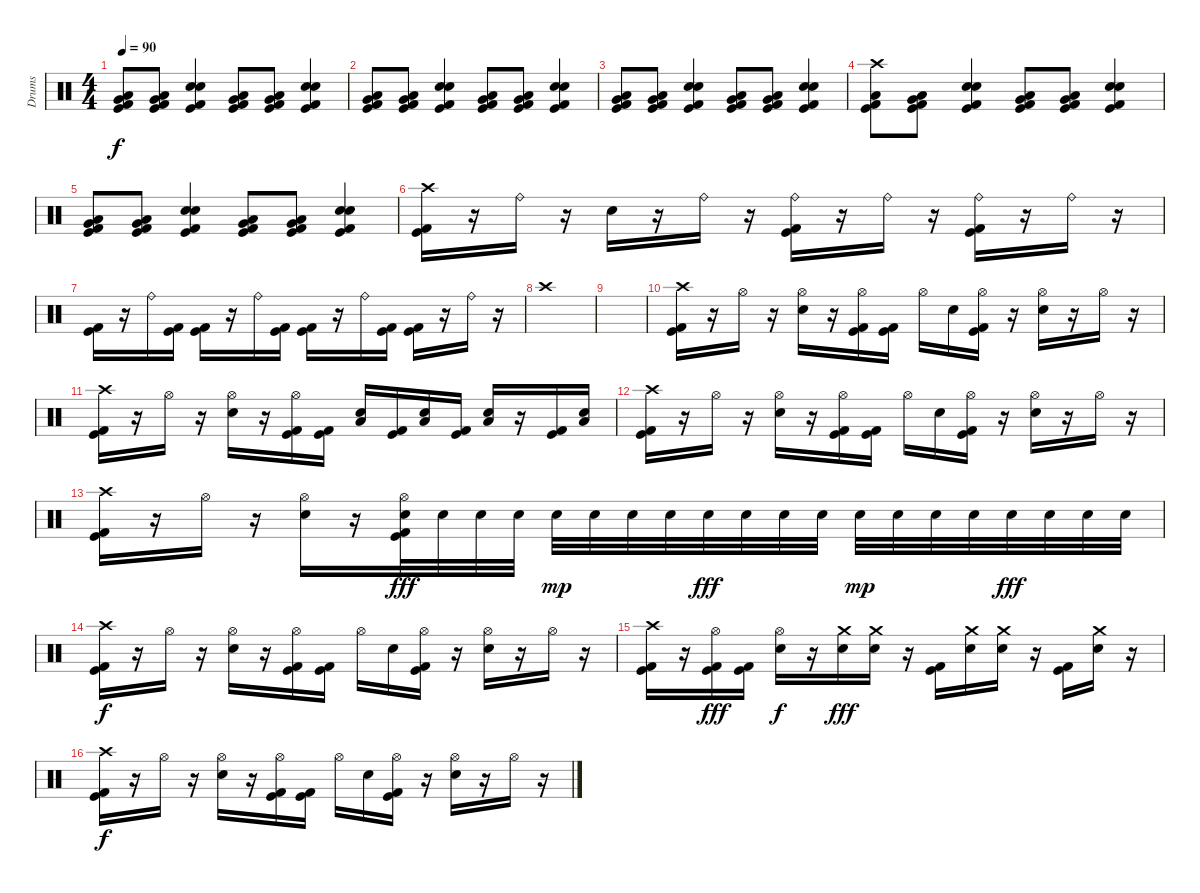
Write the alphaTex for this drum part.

\track ("Drums" "Drums") {instrument percussion}
\staff {score}
\articulation defaults
\ts (4 4)
\tempo 90
\clef neutral
\ks c
("Very Low Tom (hit)" "Low Tom (hit)" "Kick (hit)" "Kick (hit) 2").8{dy f} ("Very Low Tom (hit)" "Low Tom (hit)" "Kick (hit)" "Kick (hit) 2").8 ("Electric Snare (hit)" "Electric Snare (hit)" "Kick (hit)" "Kick (hit) 2").4 ("Very Low Tom (hit)" "Low Tom (hit)" "Kick (hit)" "Kick (hit) 2").8 ("Very Low Tom (hit)" "Low Tom (hit)" "Kick (hit)" "Kick (hit) 2").8 ("Electric Snare (hit)" "Electric Snare (hit)" "Kick (hit)" "Kick (hit) 2").4 |
("Very Low Tom (hit)" "Low Tom (hit)" "Kick (hit)" "Kick (hit) 2").8 ("Very Low Tom (hit)" "Low Tom (hit)" "Kick (hit)" "Kick (hit) 2").8 ("Electric Snare (hit)" "Electric Snare (hit)" "Kick (hit)" "Kick (hit) 2").4 ("Very Low Tom (hit)" "Low Tom (hit)" "Kick (hit)" "Kick (hit) 2").8 ("Very Low Tom (hit)" "Low Tom (hit)" "Kick (hit)" "Kick (hit) 2").8 ("Electric Snare (hit)" "Electric Snare (hit)" "Kick (hit)" "Kick (hit) 2").4 |
("Very Low Tom (hit)" "Low Tom (hit)" "Kick (hit)" "Kick (hit) 2").8 ("Very Low Tom (hit)" "Low Tom (hit)" "Kick (hit)" "Kick (hit) 2").8 ("Electric Snare (hit)" "Electric Snare (hit)" "Kick (hit)" "Kick (hit) 2").4 ("Very Low Tom (hit)" "Low Tom (hit)" "Kick (hit)" "Kick (hit) 2").8 ("Very Low Tom (hit)" "Low Tom (hit)" "Kick (hit)" "Kick (hit) 2").8 ("Electric Snare (hit)" "Electric Snare (hit)" "Kick (hit)" "Kick (hit) 2").4 |
("Crash high (hit)" "Low Tom (hit)" "Kick (hit)" "Kick (hit) 2").8 ("Very Low Tom (hit)" "Low Tom (hit)" "Kick (hit)" "Kick (hit) 2").8 ("Electric Snare (hit)" "Electric Snare (hit)" "Kick (hit)" "Kick (hit) 2").4 ("Very Low Tom (hit)" "Low Tom (hit)" "Kick (hit)" "Kick (hit) 2").8 ("Very Low Tom (hit)" "Low Tom (hit)" "Kick (hit)" "Kick (hit) 2").8 ("Electric Snare (hit)" "Electric Snare (hit)" "Kick (hit)" "Kick (hit) 2").4 |
("Very Low Tom (hit)" "Low Tom (hit)" "Kick (hit)" "Kick (hit) 2").8 ("Very Low Tom (hit)" "Low Tom (hit)" "Kick (hit)" "Kick (hit) 2").8 ("Electric Snare (hit)" "Electric Snare (hit)" "Kick (hit)" "Kick (hit) 2").4 ("Very Low Tom (hit)" "Low Tom (hit)" "Kick (hit)" "Kick (hit) 2").8 ("Very Low Tom (hit)" "Low Tom (hit)" "Kick (hit)" "Kick (hit) 2").8 ("Electric Snare (hit)" "Electric Snare (hit)" "Kick (hit)" "Kick (hit) 2").4 |
("Crash high (hit)" "Kick (hit)" "Kick (hit) 2").16 r.16 "Ride (bell)".16 r.16 "Electric Snare (hit)".16 r.16 "Ride (bell)".16 r.16 ("Ride (bell)" "Kick (hit)" "Kick (hit) 2").16 r.16 "Ride (bell)".16 r.16 ("Ride (bell)" "Kick (hit)" "Kick (hit) 2").16 r.16 "Ride (bell)".16 r.16 |
("Kick (hit)" "Kick (hit) 2").16 r.16 "Ride (bell)".16 ("Kick (hit)" "Kick (hit) 2").16 ("Kick (hit)" "Kick (hit) 2").16 r.16 "Ride (bell)".16 ("Kick (hit)" "Kick (hit) 2").16 ("Kick (hit)" "Kick (hit) 2").16 r.16 "Ride (bell)".16 ("Kick (hit)" "Kick (hit) 2").16 ("Kick (hit)" "Kick (hit) 2").16 r.16 "Ride (bell)".16 r.16 |
"Crash high (hit)".1 |
|
("Crash high (hit)" "Kick (hit)" "Kick (hit) 2").16 r.16 "Hi-Hat (open)".16 r.16 ("Hi-Hat (open)" "Electric Snare (hit)").16 r.16 ("Hi-Hat (open)" "Kick (hit)" "Kick (hit) 2").16 ("Kick (hit)" "Kick (hit) 2").16 "Hi-Hat (open)".16 "Electric Snare (hit)".16 ("Hi-Hat (open)" "Kick (hit)" "Kick (hit) 2").16 r.16 ("Hi-Hat (open)" "Electric Snare (hit)").16 r.16 "Hi-Hat (open)".16 r.16 |
("Crash high (hit)" "Kick (hit)" "Kick (hit) 2").16 r.16 "Hi-Hat (open)".16 r.16 ("Hi-Hat (open)" "Electric Snare (hit)").16 r.16 ("Hi-Hat (open)" "Kick (hit)" "Kick (hit) 2").16 ("Kick (hit)" "Kick (hit) 2").16 ("Low Tom (hit)" "Electric Snare (hit)").16 ("Kick (hit)" "Kick (hit) 2").16 ("Low Tom (hit)" "Electric Snare (hit)").16 ("Kick (hit)" "Kick (hit) 2").16 ("Low Tom (hit)" "Electric Snare (hit)").16 r.16 ("Kick (hit)" "Kick (hit) 2").16 ("Low Tom (hit)" "Electric Snare (hit)").16 |
("Crash high (hit)" "Kick (hit)" "Kick (hit) 2").16 r.16 "Hi-Hat (open)".16 r.16 ("Hi-Hat (open)" "Electric Snare (hit)").16 r.16 ("Hi-Hat (open)" "Kick (hit)" "Kick (hit) 2").16 ("Kick (hit)" "Kick (hit) 2").16 "Hi-Hat (open)".16 "Electric Snare (hit)".16 ("Hi-Hat (open)" "Kick (hit)" "Kick (hit) 2").16 r.16 ("Hi-Hat (open)" "Electric Snare (hit)").16 r.16 "Hi-Hat (open)".16 r.16 |
("Crash high (hit)" "Kick (hit)" "Kick (hit) 2").16 r.16 "Hi-Hat (open)".16 r.16 ("Hi-Hat (open)" "Electric Snare (hit)").16 r.16 ("Hi-Hat (open)" "Electric Snare (hit)" "Kick (hit)" "Kick (hit) 2").32{dy fff} "Electric Snare (hit)".32 "Electric Snare (hit)".32 "Electric Snare (hit)".32 "Electric Snare (hit)".32{dy mp} "Electric Snare (hit)".32 "Electric Snare (hit)".32 "Electric Snare (hit)".32 "Electric Snare (hit)".32{dy fff} "Electric Snare (hit)".32 "Electric Snare (hit)".32 "Electric Snare (hit)".32 "Electric Snare (hit)".32{dy mp} "Electric Snare (hit)".32 "Electric Snare (hit)".32 "Electric Snare (hit)".32 "Electric Snare (hit)".32{dy fff} "Electric Snare (hit)".32 "Electric Snare (hit)".32 "Electric Snare (hit)".32 |
("Crash high (hit)" "Kick (hit)" "Kick (hit) 2").16{dy f} r.16 "Hi-Hat (open)".16 r.16 ("Hi-Hat (open)" "Electric Snare (hit)").16 r.16 ("Hi-Hat (open)" "Kick (hit)" "Kick (hit) 2").16 ("Kick (hit)" "Kick (hit) 2").16 "Hi-Hat (open)".16 "Electric Snare (hit)".16 ("Hi-Hat (open)" "Kick (hit)" "Kick (hit) 2").16 r.16 ("Hi-Hat (open)" "Electric Snare (hit)").16 r.16 "Hi-Hat (open)".16 r.16 |
("Crash high (hit)" "Kick (hit)" "Kick (hit) 2").16 r.16 ("Hi-Hat (open)" "Kick (hit)" "Kick (hit) 2").16{dy fff} ("Kick (hit)" "Kick (hit) 2").16 ("Hi-Hat (open)" "Electric Snare (hit)").16{dy f} r.16 ("Crash medium (hit)" "Electric Snare (hit)").16{dy fff} ("Crash medium (hit)" "Electric Snare (hit)").16 r.16 ("Kick (hit)" "Kick (hit) 2").16 ("Crash medium (hit)" "Electric Snare (hit)").16 ("Crash medium (hit)" "Electric Snare (hit)").16 r.16 ("Kick (hit)" "Kick (hit) 2").16 ("Crash medium (hit)" "Electric Snare (hit)").16 r.16 |
("Crash high (hit)" "Kick (hit)" "Kick (hit) 2").16{dy f} r.16 "Hi-Hat (open)".16 r.16 ("Hi-Hat (open)" "Electric Snare (hit)").16 r.16 ("Hi-Hat (open)" "Kick (hit)" "Kick (hit) 2").16 ("Kick (hit)" "Kick (hit) 2").16 "Hi-Hat (open)".16 "Electric Snare (hit)".16 ("Hi-Hat (open)" "Kick (hit)" "Kick (hit) 2").16 r.16 ("Hi-Hat (open)" "Electric Snare (hit)").16 r.16 "Hi-Hat (open)".16 r.16
